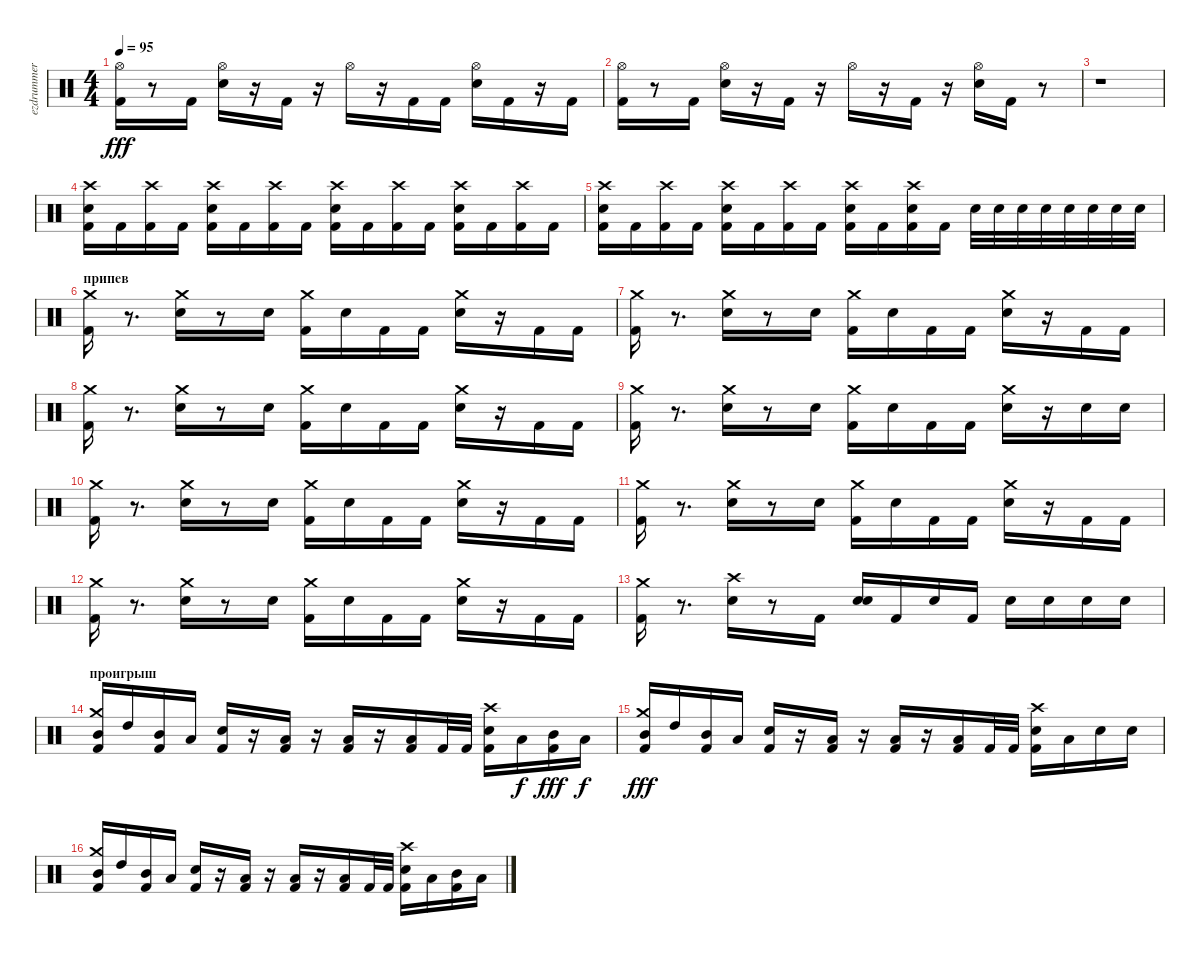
\track ("ezdrummer 01" "ezdrummer ") {instrument percussion}
\staff {score}
\articulation defaults
\ts (4 4)
\tempo 95
\clef neutral
\ks c
("Kick (hit) 2" "Hi-Hat (open)").16{dy fff} r.8 "Kick (hit) 2".16 ("Snare (hit) 2" "Hi-Hat (open)").16 r.16 "Kick (hit) 2".16 r.16 "Hi-Hat (open)".16 r.16 "Kick (hit) 2".16 "Kick (hit) 2".16 ("Snare (hit) 2" "Hi-Hat (open)").16 "Kick (hit) 2".16 r.16 "Kick (hit) 2".16 |
("Kick (hit) 2" "Hi-Hat (open)").16 r.8 "Kick (hit) 2".16 ("Snare (hit) 2" "Hi-Hat (open)").16 r.16 "Kick (hit) 2".16 r.16 "Hi-Hat (open)".16 r.16 "Kick (hit) 2".16 r.16 ("Snare (hit) 2" "Hi-Hat (open)").16 "Kick (hit) 2".16 r.8 |
r.1 |
("Kick (hit) 2" "Snare (hit) 2" "Crash high (hit)").16 "Kick (hit) 2".16 ("Kick (hit) 2" "Crash high (hit)").16 "Kick (hit) 2".16 ("Kick (hit) 2" "Snare (hit) 2" "Crash high (hit)").16 "Kick (hit) 2".16 ("Kick (hit) 2" "Crash high (hit)").16 "Kick (hit) 2".16 ("Kick (hit) 2" "Snare (hit) 2" "Crash high (hit)").16 "Kick (hit) 2".16 ("Kick (hit) 2" "Crash high (hit)").16 "Kick (hit) 2".16 ("Kick (hit) 2" "Snare (hit) 2" "Crash high (hit)").16 "Kick (hit) 2".16 ("Kick (hit) 2" "Crash high (hit)").16 "Kick (hit) 2".16 |
("Kick (hit) 2" "Snare (hit) 2" "Crash high (hit)").16 "Kick (hit) 2".16 ("Kick (hit) 2" "Crash high (hit)").16 "Kick (hit) 2".16 ("Kick (hit) 2" "Snare (hit) 2" "Crash high (hit)").16 "Kick (hit) 2".16 ("Kick (hit) 2" "Crash high (hit)").16 "Kick (hit) 2".16 ("Kick (hit) 2" "Snare (hit) 2" "Crash high (hit)").16 "Kick (hit) 2".16 ("Kick (hit) 2" "Snare (hit) 2" "Crash high (hit)").16 "Kick (hit) 2".16 "Snare (hit) 2".32 "Snare (hit) 2".32 "Snare (hit) 2".32 "Snare (hit) 2".32 "Snare (hit) 2".32 "Snare (hit) 2".32 "Snare (hit) 2".32 "Snare (hit) 2".32 |
\section ("" "припев")
("Kick (hit) 2" "Crash medium (hit)").16 r.8{d} ("Snare (hit) 2" "Crash medium (hit)").16 r.8 "Snare (hit) 2".16 ("Kick (hit) 2" "Crash medium (hit)").16 "Snare (hit) 2".16 "Kick (hit) 2".16 "Kick (hit) 2".16 ("Snare (hit) 2" "Crash medium (hit)").16 r.16 "Kick (hit) 2".16 "Kick (hit) 2".16 |
("Kick (hit) 2" "Crash medium (hit)").16 r.8{d} ("Snare (hit) 2" "Crash medium (hit)").16 r.8 "Snare (hit) 2".16 ("Kick (hit) 2" "Crash medium (hit)").16 "Snare (hit) 2".16 "Kick (hit) 2".16 "Kick (hit) 2".16 ("Snare (hit) 2" "Crash medium (hit)").16 r.16 "Kick (hit) 2".16 "Kick (hit) 2".16 |
("Kick (hit) 2" "Crash medium (hit)").16 r.8{d} ("Snare (hit) 2" "Crash medium (hit)").16 r.8 "Snare (hit) 2".16 ("Kick (hit) 2" "Crash medium (hit)").16 "Snare (hit) 2".16 "Kick (hit) 2".16 "Kick (hit) 2".16 ("Snare (hit) 2" "Crash medium (hit)").16 r.16 "Kick (hit) 2".16 "Kick (hit) 2".16 |
("Kick (hit) 2" "Crash medium (hit)").16 r.8{d} ("Snare (hit) 2" "Crash medium (hit)").16 r.8 "Snare (hit) 2".16 ("Kick (hit) 2" "Crash medium (hit)").16 "Snare (hit) 2".16 "Kick (hit) 2".16 "Kick (hit) 2".16 ("Snare (hit) 2" "Crash medium (hit)").16 r.16 "Snare (hit) 2".16 "Snare (hit) 2".16 |
("Kick (hit) 2" "Crash medium (hit)").16 r.8{d} ("Snare (hit) 2" "Crash medium (hit)").16 r.8 "Snare (hit) 2".16 ("Kick (hit) 2" "Crash medium (hit)").16 "Snare (hit) 2".16 "Kick (hit) 2".16 "Kick (hit) 2".16 ("Snare (hit) 2" "Crash medium (hit)").16 r.16 "Kick (hit) 2".16 "Kick (hit) 2".16 |
("Kick (hit) 2" "Crash medium (hit)").16 r.8{d} ("Snare (hit) 2" "Crash medium (hit)").16 r.8 "Snare (hit) 2".16 ("Kick (hit) 2" "Crash medium (hit)").16 "Snare (hit) 2".16 "Kick (hit) 2".16 "Kick (hit) 2".16 ("Snare (hit) 2" "Crash medium (hit)").16 r.16 "Kick (hit) 2".16 "Kick (hit) 2".16 |
("Kick (hit) 2" "Crash medium (hit)").16 r.8{d} ("Snare (hit) 2" "Crash medium (hit)").16 r.8 "Snare (hit) 2".16 ("Kick (hit) 2" "Crash medium (hit)").16 "Snare (hit) 2".16 "Kick (hit) 2".16 "Kick (hit) 2".16 ("Snare (hit) 2" "Crash medium (hit)").16 r.16 "Kick (hit) 2".16 "Kick (hit) 2".16 |
("Kick (hit) 2" "Crash medium (hit)").16 r.8{d} ("Snare (hit) 2" "Crash high (hit)").16 r.8 "Kick (hit) 2".16 ("Snare (hit) 2" "Snare (hit) 2").16 "Kick (hit) 2".16 "Snare (hit) 2".16 "Kick (hit) 2".16 "Snare (hit) 2".16 "Snare (hit) 2".16 "Snare (hit) 2".16 "Snare (hit) 2".16 |
\section ("" "проигрыш")
("Kick (hit) 2" "Mid Tom (hit)" "Crash medium (hit)").16 "High Tom (hit)".16 ("Kick (hit) 2" "Mid Tom (hit)").16 "Low Tom (hit)".16 ("Kick (hit) 2" "Snare (hit) 2").16 r.16 ("Kick (hit) 2" "Low Tom (hit)").16 r.16 ("Kick (hit) 2" "Low Tom (hit)").16 r.16 ("Kick (hit) 2" "Low Tom (hit)").16 "Kick (hit) 2".32 "Kick (hit) 2".32 ("Kick (hit) 2" "Snare (hit) 2" "Crash high (hit)").16 "Low Tom (hit)".16{dy f} ("Kick (hit) 2" "Mid Tom (hit)").16{dy fff} "Low Tom (hit)".16{dy f} |
("Kick (hit) 2" "Mid Tom (hit)" "Crash medium (hit)").16{dy fff} "High Tom (hit)".16 ("Kick (hit) 2" "Mid Tom (hit)").16 "Low Tom (hit)".16 ("Kick (hit) 2" "Snare (hit) 2").16 r.16 ("Kick (hit) 2" "Low Tom (hit)").16 r.16 ("Kick (hit) 2" "Low Tom (hit)").16 r.16 ("Kick (hit) 2" "Low Tom (hit)").16 "Kick (hit) 2".32 "Kick (hit) 2".32 ("Kick (hit) 2" "Snare (hit) 2" "Crash high (hit)").16 "Low Tom (hit)".16 "Snare (hit) 2".16 "Snare (hit) 2".16 |
("Mid Tom (hit)" "Kick (hit) 2" "Crash medium (hit)").16 "High Tom (hit)".16 ("Mid Tom (hit)" "Kick (hit) 2").16 "Low Tom (hit)".16 ("Kick (hit) 2" "Snare (hit) 2").16 r.16 ("Low Tom (hit)" "Kick (hit) 2").16 r.16 ("Low Tom (hit)" "Kick (hit) 2").16 r.16 ("Low Tom (hit)" "Kick (hit) 2").16 "Kick (hit) 2".32 "Kick (hit) 2".32 ("Kick (hit) 2" "Snare (hit) 2" "Crash high (hit)").16 "Low Tom (hit)".16 ("Kick (hit) 2" "Mid Tom (hit)").16 "Low Tom (hit)".16
